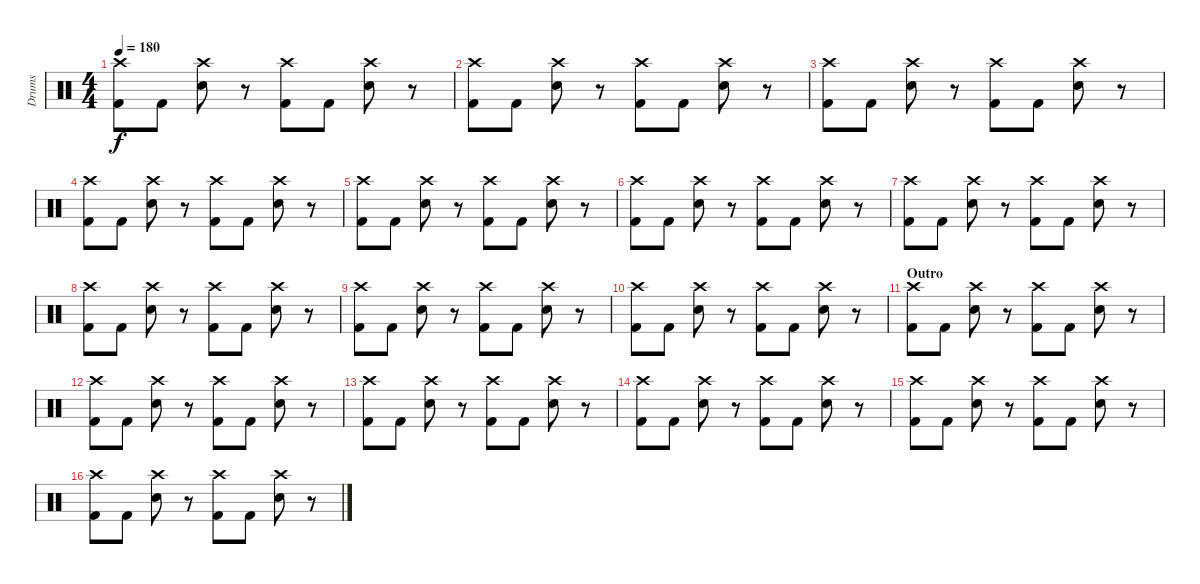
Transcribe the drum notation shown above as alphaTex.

\track ("Drums" "Drums") {instrument percussion}
\staff {score}
\articulation defaults
\ts (4 4)
\tempo 180
\clef neutral
\ks c
("Crash high (hit)" "Kick (hit) 2").8{dy f} "Kick (hit) 2".8 ("Crash high (hit)" "Snare (hit) 2").8 r.8 ("Crash high (hit)" "Kick (hit) 2").8 "Kick (hit) 2".8 ("Crash high (hit)" "Snare (hit) 2").8 r.8 |
("Crash high (hit)" "Kick (hit) 2").8 "Kick (hit) 2".8 ("Crash high (hit)" "Snare (hit) 2").8 r.8 ("Crash high (hit)" "Kick (hit) 2").8 "Kick (hit) 2".8 ("Crash high (hit)" "Snare (hit) 2").8 r.8 |
("Crash high (hit)" "Kick (hit) 2").8 "Kick (hit) 2".8 ("Crash high (hit)" "Snare (hit) 2").8 r.8 ("Crash high (hit)" "Kick (hit) 2").8 "Kick (hit) 2".8 ("Crash high (hit)" "Snare (hit) 2").8 r.8 |
("Crash high (hit)" "Kick (hit) 2").8 "Kick (hit) 2".8 ("Crash high (hit)" "Snare (hit) 2").8 r.8 ("Crash high (hit)" "Kick (hit) 2").8 "Kick (hit) 2".8 ("Crash high (hit)" "Snare (hit) 2").8 r.8 |
("Crash high (hit)" "Kick (hit) 2").8 "Kick (hit) 2".8 ("Crash high (hit)" "Snare (hit) 2").8 r.8 ("Crash high (hit)" "Kick (hit) 2").8 "Kick (hit) 2".8 ("Crash high (hit)" "Snare (hit) 2").8 r.8 |
("Crash high (hit)" "Kick (hit) 2").8 "Kick (hit) 2".8 ("Crash high (hit)" "Snare (hit) 2").8 r.8 ("Crash high (hit)" "Kick (hit) 2").8 "Kick (hit) 2".8 ("Crash high (hit)" "Snare (hit) 2").8 r.8 |
("Crash high (hit)" "Kick (hit) 2").8 "Kick (hit) 2".8 ("Crash high (hit)" "Snare (hit) 2").8 r.8 ("Crash high (hit)" "Kick (hit) 2").8 "Kick (hit) 2".8 ("Crash high (hit)" "Snare (hit) 2").8 r.8 |
("Crash high (hit)" "Kick (hit) 2").8 "Kick (hit) 2".8 ("Crash high (hit)" "Snare (hit) 2").8 r.8 ("Crash high (hit)" "Kick (hit) 2").8 "Kick (hit) 2".8 ("Crash high (hit)" "Snare (hit) 2").8 r.8 |
("Crash high (hit)" "Kick (hit) 2").8 "Kick (hit) 2".8 ("Crash high (hit)" "Snare (hit) 2").8 r.8 ("Crash high (hit)" "Kick (hit) 2").8 "Kick (hit) 2".8 ("Crash high (hit)" "Snare (hit) 2").8 r.8 |
("Crash high (hit)" "Kick (hit) 2").8 "Kick (hit) 2".8 ("Crash high (hit)" "Snare (hit) 2").8 r.8 ("Crash high (hit)" "Kick (hit) 2").8 "Kick (hit) 2".8 ("Crash high (hit)" "Snare (hit) 2").8 r.8 |
\section ("" "Outro")
("Crash high (hit)" "Kick (hit) 2").8 "Kick (hit) 2".8 ("Crash high (hit)" "Snare (hit) 2").8 r.8 ("Crash high (hit)" "Kick (hit) 2").8 "Kick (hit) 2".8 ("Crash high (hit)" "Snare (hit) 2").8 r.8 |
("Crash high (hit)" "Kick (hit) 2").8 "Kick (hit) 2".8 ("Crash high (hit)" "Snare (hit) 2").8 r.8 ("Crash high (hit)" "Kick (hit) 2").8 "Kick (hit) 2".8 ("Crash high (hit)" "Snare (hit) 2").8 r.8 |
("Crash high (hit)" "Kick (hit) 2").8 "Kick (hit) 2".8 ("Crash high (hit)" "Snare (hit) 2").8 r.8 ("Crash high (hit)" "Kick (hit) 2").8 "Kick (hit) 2".8 ("Crash high (hit)" "Snare (hit) 2").8 r.8 |
("Crash high (hit)" "Kick (hit) 2").8 "Kick (hit) 2".8 ("Crash high (hit)" "Snare (hit) 2").8 r.8 ("Crash high (hit)" "Kick (hit) 2").8 "Kick (hit) 2".8 ("Crash high (hit)" "Snare (hit) 2").8 r.8 |
("Crash high (hit)" "Kick (hit) 2").8 "Kick (hit) 2".8 ("Crash high (hit)" "Snare (hit) 2").8 r.8 ("Crash high (hit)" "Kick (hit) 2").8 "Kick (hit) 2".8 ("Crash high (hit)" "Snare (hit) 2").8 r.8 |
("Crash high (hit)" "Kick (hit) 2").8 "Kick (hit) 2".8 ("Crash high (hit)" "Snare (hit) 2").8 r.8 ("Crash high (hit)" "Kick (hit) 2").8 "Kick (hit) 2".8 ("Crash high (hit)" "Snare (hit) 2").8 r.8
